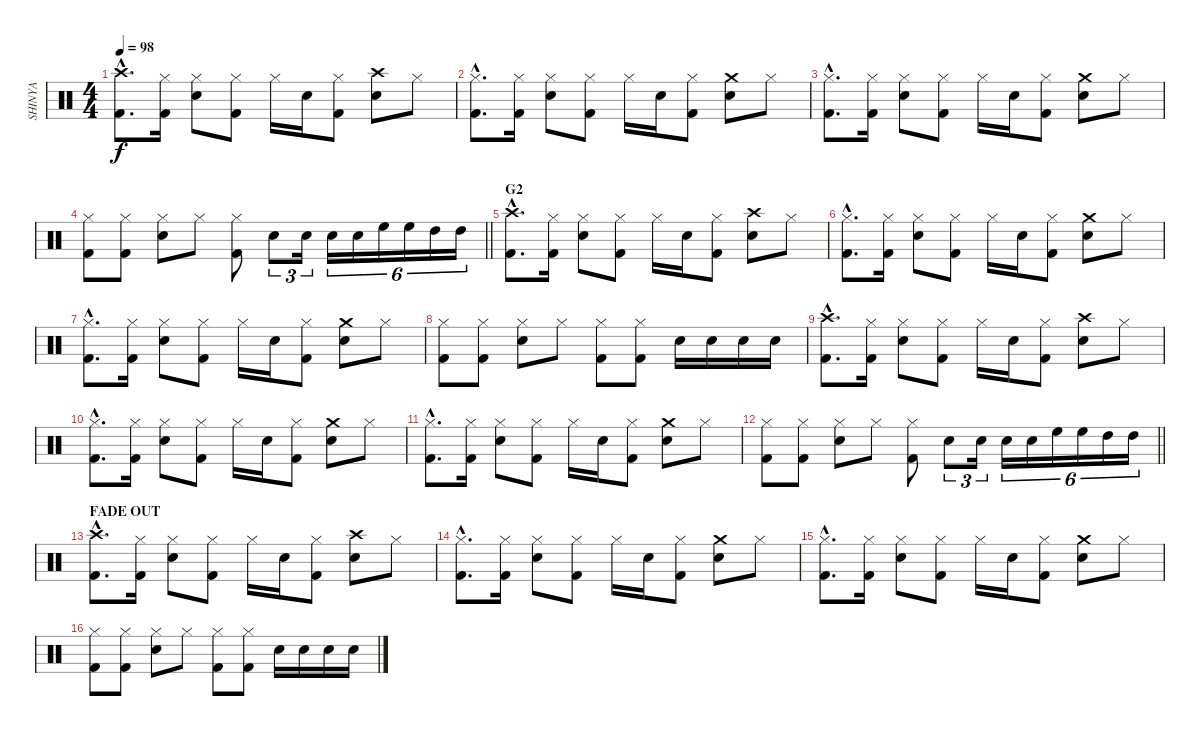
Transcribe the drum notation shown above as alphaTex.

\track ("SHINYA" "SHINYA") {instrument percussion}
\staff {score}
\articulation defaults
\ts (4 4)
\tempo 98
\clef neutral
\ks c
("Crash high (hit)"{hac} "Kick (hit) 2"{hac}).8{d dy f} ("Hi-Hat (closed)" "Kick (hit) 2").16 ("Hi-Hat (closed)" "Snare (hit) 2").8 ("Hi-Hat (closed)" "Kick (hit) 2").8 "Hi-Hat (closed)".16 "Snare (hit) 2".16 ("Hi-Hat (closed)" "Kick (hit) 2").8 ("Crash high (hit)" "Snare (hit) 2").8 "Hi-Hat (closed)".8 |
("Hi-Hat (closed)"{hac} "Kick (hit) 2"{hac}).8{d} ("Hi-Hat (closed)" "Kick (hit) 2").16 ("Hi-Hat (closed)" "Snare (hit) 2").8 ("Hi-Hat (closed)" "Kick (hit) 2").8 "Hi-Hat (closed)".16 "Snare (hit) 2".16 ("Hi-Hat (closed)" "Kick (hit) 2").8 ("Crash medium (hit)" "Snare (hit) 2").8 "Hi-Hat (closed)".8 |
("Hi-Hat (closed)"{hac} "Kick (hit) 2"{hac}).8{d} ("Hi-Hat (closed)" "Kick (hit) 2").16 ("Hi-Hat (closed)" "Snare (hit) 2").8 ("Hi-Hat (closed)" "Kick (hit) 2").8 "Hi-Hat (closed)".16 "Snare (hit) 2".16 ("Hi-Hat (closed)" "Kick (hit) 2").8 ("Crash medium (hit)" "Snare (hit) 2").8 "Hi-Hat (closed)".8 |
\barLineRight lightlight
("Hi-Hat (closed)" "Kick (hit) 2").8 ("Hi-Hat (closed)" "Kick (hit) 2").8 ("Hi-Hat (closed)" "Snare (hit) 2").8 "Hi-Hat (closed)".8 ("Hi-Hat (closed)" "Kick (hit) 2").8 "Snare (hit) 2".8{tu (3 2)} "Snare (hit) 2".16{tu (3 2)} "Snare (hit) 2".16{tu (6 4)} "Snare (hit) 2".16{tu (6 4)} "High Floor Tom (hit)".16{tu (6 4)} "High Floor Tom (hit)".16{tu (6 4)} "High Tom (hit)".16{tu (6 4)} "High Tom (hit)".16{tu (6 4)} |
\section ("" "G2")
("Crash high (hit)"{hac} "Kick (hit) 2"{hac}).8{d} ("Hi-Hat (closed)" "Kick (hit) 2").16 ("Hi-Hat (closed)" "Snare (hit) 2").8 ("Hi-Hat (closed)" "Kick (hit) 2").8 "Hi-Hat (closed)".16 "Snare (hit) 2".16 ("Hi-Hat (closed)" "Kick (hit) 2").8 ("Crash high (hit)" "Snare (hit) 2").8 "Hi-Hat (closed)".8 |
("Hi-Hat (closed)"{hac} "Kick (hit) 2"{hac}).8{d} ("Hi-Hat (closed)" "Kick (hit) 2").16 ("Hi-Hat (closed)" "Snare (hit) 2").8 ("Hi-Hat (closed)" "Kick (hit) 2").8 "Hi-Hat (closed)".16 "Snare (hit) 2".16 ("Hi-Hat (closed)" "Kick (hit) 2").8 ("Crash medium (hit)" "Snare (hit) 2").8 "Hi-Hat (closed)".8 |
("Hi-Hat (closed)"{hac} "Kick (hit) 2"{hac}).8{d} ("Hi-Hat (closed)" "Kick (hit) 2").16 ("Hi-Hat (closed)" "Snare (hit) 2").8 ("Hi-Hat (closed)" "Kick (hit) 2").8 "Hi-Hat (closed)".16 "Snare (hit) 2".16 ("Hi-Hat (closed)" "Kick (hit) 2").8 ("Crash medium (hit)" "Snare (hit) 2").8 "Hi-Hat (closed)".8 |
("Hi-Hat (closed)" "Kick (hit) 2").8 ("Hi-Hat (closed)" "Kick (hit) 2").8 ("Hi-Hat (closed)" "Snare (hit) 2").8 "Hi-Hat (closed)".8 ("Hi-Hat (closed)" "Kick (hit) 2").8 ("Hi-Hat (closed)" "Kick (hit) 2").8 "Snare (hit) 2".16 "Snare (hit) 2".16 "Snare (hit) 2".16 "Snare (hit) 2".16 |
("Crash high (hit)"{hac} "Kick (hit) 2"{hac}).8{d} ("Hi-Hat (closed)" "Kick (hit) 2").16 ("Hi-Hat (closed)" "Snare (hit) 2").8 ("Hi-Hat (closed)" "Kick (hit) 2").8 "Hi-Hat (closed)".16 "Snare (hit) 2".16 ("Hi-Hat (closed)" "Kick (hit) 2").8 ("Crash high (hit)" "Snare (hit) 2").8 "Hi-Hat (closed)".8 |
("Hi-Hat (closed)"{hac} "Kick (hit) 2"{hac}).8{d} ("Hi-Hat (closed)" "Kick (hit) 2").16 ("Hi-Hat (closed)" "Snare (hit) 2").8 ("Hi-Hat (closed)" "Kick (hit) 2").8 "Hi-Hat (closed)".16 "Snare (hit) 2".16 ("Hi-Hat (closed)" "Kick (hit) 2").8 ("Crash medium (hit)" "Snare (hit) 2").8 "Hi-Hat (closed)".8 |
("Hi-Hat (closed)"{hac} "Kick (hit) 2"{hac}).8{d} ("Hi-Hat (closed)" "Kick (hit) 2").16 ("Hi-Hat (closed)" "Snare (hit) 2").8 ("Hi-Hat (closed)" "Kick (hit) 2").8 "Hi-Hat (closed)".16 "Snare (hit) 2".16 ("Hi-Hat (closed)" "Kick (hit) 2").8 ("Crash medium (hit)" "Snare (hit) 2").8 "Hi-Hat (closed)".8 |
\barLineRight lightlight
("Hi-Hat (closed)" "Kick (hit) 2").8 ("Hi-Hat (closed)" "Kick (hit) 2").8 ("Hi-Hat (closed)" "Snare (hit) 2").8 "Hi-Hat (closed)".8 ("Hi-Hat (closed)" "Kick (hit) 2").8 "Snare (hit) 2".8{tu (3 2)} "Snare (hit) 2".16{tu (3 2)} "Snare (hit) 2".16{tu (6 4)} "Snare (hit) 2".16{tu (6 4)} "High Floor Tom (hit)".16{tu (6 4)} "High Floor Tom (hit)".16{tu (6 4)} "High Tom (hit)".16{tu (6 4)} "High Tom (hit)".16{tu (6 4)} |
\section ("" "FADE OUT")
("Crash high (hit)"{hac} "Kick (hit) 2"{hac}).8{d} ("Hi-Hat (closed)" "Kick (hit) 2").16 ("Hi-Hat (closed)" "Snare (hit) 2").8 ("Hi-Hat (closed)" "Kick (hit) 2").8 "Hi-Hat (closed)".16 "Snare (hit) 2".16 ("Hi-Hat (closed)" "Kick (hit) 2").8 ("Crash high (hit)" "Snare (hit) 2").8 "Hi-Hat (closed)".8 |
("Hi-Hat (closed)"{hac} "Kick (hit) 2"{hac}).8{d} ("Hi-Hat (closed)" "Kick (hit) 2").16 ("Hi-Hat (closed)" "Snare (hit) 2").8 ("Hi-Hat (closed)" "Kick (hit) 2").8 "Hi-Hat (closed)".16 "Snare (hit) 2".16 ("Hi-Hat (closed)" "Kick (hit) 2").8 ("Crash medium (hit)" "Snare (hit) 2").8 "Hi-Hat (closed)".8 |
("Hi-Hat (closed)"{hac} "Kick (hit) 2"{hac}).8{d} ("Hi-Hat (closed)" "Kick (hit) 2").16 ("Hi-Hat (closed)" "Snare (hit) 2").8 ("Hi-Hat (closed)" "Kick (hit) 2").8 "Hi-Hat (closed)".16 "Snare (hit) 2".16 ("Hi-Hat (closed)" "Kick (hit) 2").8 ("Crash medium (hit)" "Snare (hit) 2").8 "Hi-Hat (closed)".8 |
("Hi-Hat (closed)" "Kick (hit) 2").8 ("Hi-Hat (closed)" "Kick (hit) 2").8 ("Hi-Hat (closed)" "Snare (hit) 2").8 "Hi-Hat (closed)".8 ("Hi-Hat (closed)" "Kick (hit) 2").8 ("Hi-Hat (closed)" "Kick (hit) 2").8 "Snare (hit) 2".16 "Snare (hit) 2".16 "Snare (hit) 2".16 "Snare (hit) 2".16
